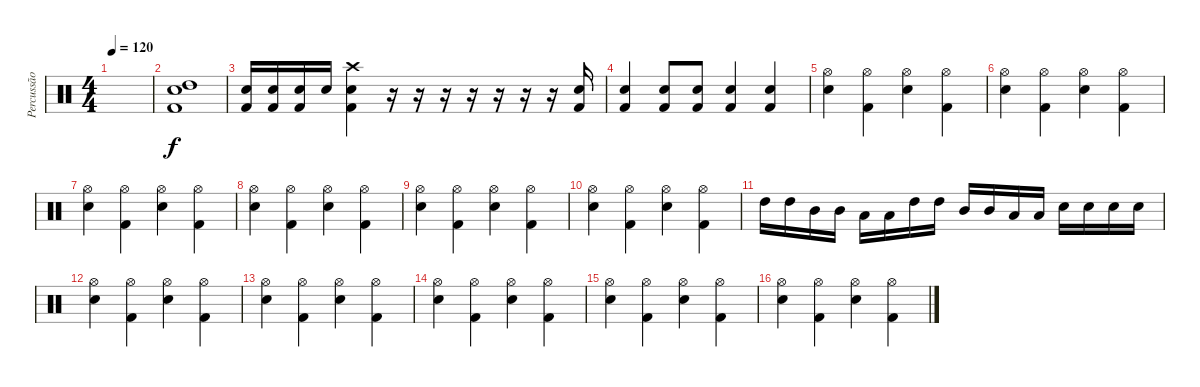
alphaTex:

\track ("Percussão" "Percussão") {instrument percussion}
\staff {score}
\articulation defaults
\ts (4 4)
\tempo 120
\clef neutral
\ks c
|
("High Tom (hit)" "Electric Snare (hit)" "Kick (hit) 2").1 |
("Kick (hit) 2" "Electric Snare (hit)").16 ("Kick (hit) 2" "Electric Snare (hit)").16 ("Kick (hit) 2" "Electric Snare (hit)").16 "Electric Snare (hit)".16 ("Crash high (hit)" "Kick (hit) 2" "Electric Snare (hit)").4 r.16 r.16 r.16 r.16 r.16 r.16 r.16 ("Electric Snare (hit)" "Kick (hit) 2").16 |
("Electric Snare (hit)" "Kick (hit) 2").4 ("Electric Snare (hit)" "Kick (hit) 2").8 ("Electric Snare (hit)" "Kick (hit) 2").8 ("Electric Snare (hit)" "Kick (hit) 2").4 ("Electric Snare (hit)" "Kick (hit) 2").4 |
("Hi-Hat (open)" "Electric Snare (hit)").4 ("Hi-Hat (open)" "Kick (hit) 2").4 ("Hi-Hat (open)" "Electric Snare (hit)").4 ("Hi-Hat (open)" "Kick (hit) 2").4 |
("Hi-Hat (open)" "Electric Snare (hit)").4 ("Hi-Hat (open)" "Kick (hit) 2").4 ("Hi-Hat (open)" "Electric Snare (hit)").4 ("Hi-Hat (open)" "Kick (hit) 2").4 |
("Hi-Hat (open)" "Electric Snare (hit)").4 ("Hi-Hat (open)" "Kick (hit) 2").4 ("Hi-Hat (open)" "Electric Snare (hit)").4 ("Hi-Hat (open)" "Kick (hit) 2").4 |
("Hi-Hat (open)" "Electric Snare (hit)").4 ("Hi-Hat (open)" "Kick (hit) 2").4 ("Hi-Hat (open)" "Electric Snare (hit)").4 ("Hi-Hat (open)" "Kick (hit) 2").4 |
("Hi-Hat (open)" "Electric Snare (hit)").4 ("Hi-Hat (open)" "Kick (hit) 2").4 ("Hi-Hat (open)" "Electric Snare (hit)").4 ("Hi-Hat (open)" "Kick (hit) 2").4 |
("Hi-Hat (open)" "Electric Snare (hit)").4 ("Hi-Hat (open)" "Kick (hit) 2").4 ("Hi-Hat (open)" "Electric Snare (hit)").4 ("Hi-Hat (open)" "Kick (hit) 2").4 |
"High Tom (hit)".16 "High Tom (hit)".16 "Mid Tom (hit)".16 "Mid Tom (hit)".16 "Low Tom (hit)".16 "Low Tom (hit)".16 "High Tom (hit)".16 "High Tom (hit)".16 "Mid Tom (hit)".16 "Mid Tom (hit)".16 "Low Tom (hit)".16 "Low Tom (hit)".16 "Electric Snare (hit)".16 "Electric Snare (hit)".16 "Electric Snare (hit)".16 "Electric Snare (hit)".16 |
("Hi-Hat (open)" "Electric Snare (hit)").4 ("Hi-Hat (open)" "Kick (hit) 2").4 ("Hi-Hat (open)" "Electric Snare (hit)").4 ("Hi-Hat (open)" "Kick (hit) 2").4 |
("Hi-Hat (open)" "Electric Snare (hit)").4 ("Hi-Hat (open)" "Kick (hit) 2").4 ("Hi-Hat (open)" "Electric Snare (hit)").4 ("Hi-Hat (open)" "Kick (hit) 2").4 |
("Hi-Hat (open)" "Electric Snare (hit)").4 ("Hi-Hat (open)" "Kick (hit) 2").4 ("Hi-Hat (open)" "Electric Snare (hit)").4 ("Hi-Hat (open)" "Kick (hit) 2").4 |
("Hi-Hat (open)" "Electric Snare (hit)").4 ("Hi-Hat (open)" "Kick (hit) 2").4 ("Hi-Hat (open)" "Electric Snare (hit)").4 ("Hi-Hat (open)" "Kick (hit) 2").4 |
("Hi-Hat (open)" "Electric Snare (hit)").4 ("Hi-Hat (open)" "Kick (hit) 2").4 ("Hi-Hat (open)" "Electric Snare (hit)").4 ("Hi-Hat (open)" "Kick (hit) 2").4
